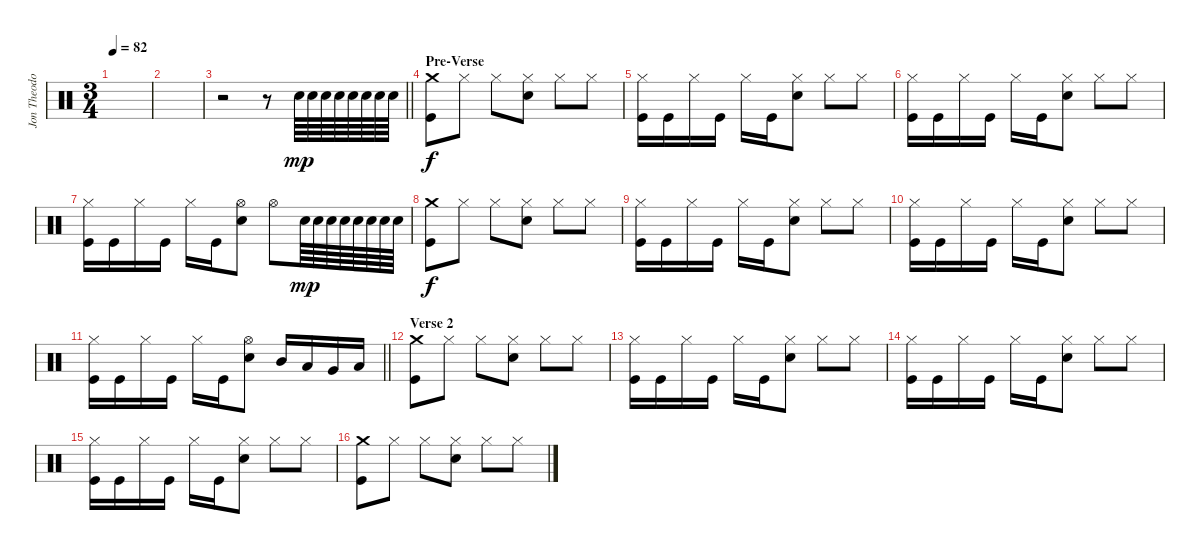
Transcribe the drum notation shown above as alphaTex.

\track ("Jon Theodore - Drums" "Jon Theodo") {instrument percussion}
\staff {score}
\articulation defaults
\ts (3 4)
\tempo 82
\clef neutral
\ks c
|
|
\barLineRight lightlight
r.2 r.8 "Snare (hit) 2".64{dy mp} "Snare (hit) 2".64 "Snare (hit) 2".64 "Snare (hit) 2".64 "Snare (hit) 2".64 "Snare (hit) 2".64 "Snare (hit) 2".64 "Snare (hit) 2".64 |
\section ("" "Pre-Verse")
("Crash medium (hit)" "Kick (hit)").8{dy f} "Hi-Hat (closed)".8 "Hi-Hat (closed)".8 ("Hi-Hat (closed)" "Snare (hit) 2").8 "Hi-Hat (closed)".8 "Hi-Hat (closed)".8 |
("Hi-Hat (closed)" "Kick (hit)").16 "Kick (hit)".16 "Hi-Hat (closed)".16 "Kick (hit)".16 "Hi-Hat (closed)".16 "Kick (hit)".16 ("Hi-Hat (closed)" "Snare (hit) 2").8 "Hi-Hat (closed)".8 "Hi-Hat (closed)".8 |
("Hi-Hat (closed)" "Kick (hit)").16 "Kick (hit)".16 "Hi-Hat (closed)".16 "Kick (hit)".16 "Hi-Hat (closed)".16 "Kick (hit)".16 ("Hi-Hat (closed)" "Snare (hit) 2").8 "Hi-Hat (closed)".8 "Hi-Hat (closed)".8 |
("Hi-Hat (closed)" "Kick (hit)").16 "Kick (hit)".16 "Hi-Hat (closed)".16 "Kick (hit)".16 "Hi-Hat (closed)".16 "Kick (hit)".16 ("Hi-Hat (open)" "Snare (hit) 2").8 "Hi-Hat (open)".8 "Snare (hit) 2".64{dy mp} "Snare (hit) 2".64 "Snare (hit) 2".64 "Snare (hit) 2".64 "Snare (hit) 2".64 "Snare (hit) 2".64 "Snare (hit) 2".64 "Snare (hit) 2".64 |
("Crash medium (hit)" "Kick (hit)").8{dy f} "Hi-Hat (closed)".8 "Hi-Hat (closed)".8 ("Hi-Hat (closed)" "Snare (hit) 2").8 "Hi-Hat (closed)".8 "Hi-Hat (closed)".8 |
("Hi-Hat (closed)" "Kick (hit)").16 "Kick (hit)".16 "Hi-Hat (closed)".16 "Kick (hit)".16 "Hi-Hat (closed)".16 "Kick (hit)".16 ("Hi-Hat (closed)" "Snare (hit) 2").8 "Hi-Hat (closed)".8 "Hi-Hat (closed)".8 |
("Hi-Hat (closed)" "Kick (hit)").16 "Kick (hit)".16 "Hi-Hat (closed)".16 "Kick (hit)".16 "Hi-Hat (closed)".16 "Kick (hit)".16 ("Hi-Hat (closed)" "Snare (hit) 2").8 "Hi-Hat (closed)".8 "Hi-Hat (closed)".8 |
\barLineRight lightlight
("Hi-Hat (closed)" "Kick (hit)").16 "Kick (hit)".16 "Hi-Hat (closed)".16 "Kick (hit)".16 "Hi-Hat (closed)".16 "Kick (hit)".16 ("Hi-Hat (open)" "Snare (hit) 2").8 "Mid Tom (hit)".16 "Low Tom (hit)".16 "Very Low Tom (hit)".16 "Low Tom (hit)".16 |
\section ("" "Verse 2")
("Crash medium (hit)" "Kick (hit)").8 "Hi-Hat (closed)".8 "Hi-Hat (closed)".8 ("Hi-Hat (closed)" "Snare (hit) 2").8 "Hi-Hat (closed)".8 "Hi-Hat (closed)".8 |
("Hi-Hat (closed)" "Kick (hit)").16 "Kick (hit)".16 "Hi-Hat (closed)".16 "Kick (hit)".16 "Hi-Hat (closed)".16 "Kick (hit)".16 ("Hi-Hat (closed)" "Snare (hit) 2").8 "Hi-Hat (closed)".8 "Hi-Hat (closed)".8 |
("Hi-Hat (closed)" "Kick (hit)").16 "Kick (hit)".16 "Hi-Hat (closed)".16 "Kick (hit)".16 "Hi-Hat (closed)".16 "Kick (hit)".16 ("Hi-Hat (closed)" "Snare (hit) 2").8 "Hi-Hat (closed)".8 "Hi-Hat (closed)".8 |
("Hi-Hat (closed)" "Kick (hit)").16 "Kick (hit)".16 "Hi-Hat (closed)".16 "Kick (hit)".16 "Hi-Hat (closed)".16 "Kick (hit)".16 ("Hi-Hat (closed)" "Snare (hit) 2").8 "Hi-Hat (closed)".8 "Hi-Hat (closed)".8 |
("Crash medium (hit)" "Kick (hit)").8 "Hi-Hat (closed)".8 "Hi-Hat (closed)".8 ("Hi-Hat (closed)" "Snare (hit) 2").8 "Hi-Hat (closed)".8 "Hi-Hat (closed)".8
